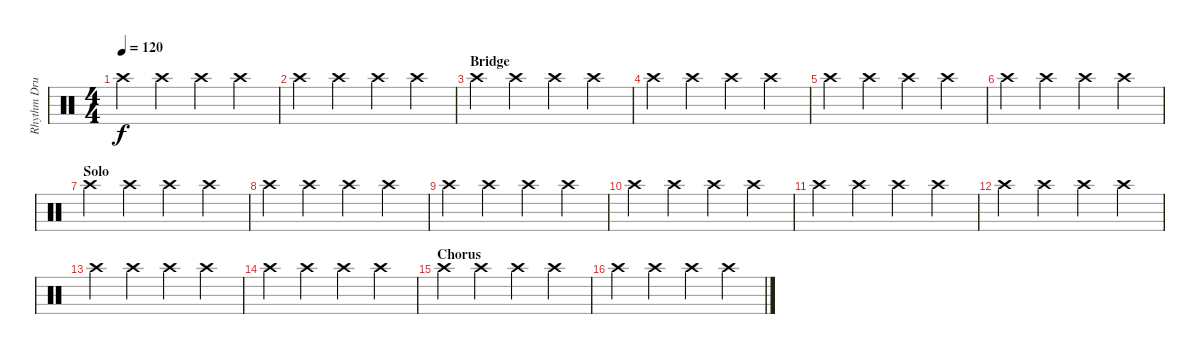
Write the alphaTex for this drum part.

\track ("Rhythm Drums (crash cymbal)" "Rhythm Dru") {instrument percussion}
\staff {score}
\articulation defaults
\ts (4 4)
\tempo 120
\clef neutral
\ks c "Crash high (hit)".4{dy f} "Crash high (hit)".4 "Crash high (hit)".4 "Crash high (hit)".4
|
"Crash high (hit)".4 "Crash high (hit)".4 "Crash high (hit)".4 "Crash high (hit)".4 |
\section ("" "Bridge")
"Crash high (hit)".4 "Crash high (hit)".4 "Crash high (hit)".4 "Crash high (hit)".4 |
"Crash high (hit)".4 "Crash high (hit)".4 "Crash high (hit)".4 "Crash high (hit)".4 |
"Crash high (hit)".4 "Crash high (hit)".4 "Crash high (hit)".4 "Crash high (hit)".4 |
"Crash high (hit)".4 "Crash high (hit)".4 "Crash high (hit)".4 "Crash high (hit)".4 |
\section ("" "Solo")
"Crash high (hit)".4 "Crash high (hit)".4 "Crash high (hit)".4 "Crash high (hit)".4 |
"Crash high (hit)".4 "Crash high (hit)".4 "Crash high (hit)".4 "Crash high (hit)".4 |
"Crash high (hit)".4 "Crash high (hit)".4 "Crash high (hit)".4 "Crash high (hit)".4 |
"Crash high (hit)".4 "Crash high (hit)".4 "Crash high (hit)".4 "Crash high (hit)".4 |
"Crash high (hit)".4 "Crash high (hit)".4 "Crash high (hit)".4 "Crash high (hit)".4 |
"Crash high (hit)".4 "Crash high (hit)".4 "Crash high (hit)".4 "Crash high (hit)".4 |
"Crash high (hit)".4 "Crash high (hit)".4 "Crash high (hit)".4 "Crash high (hit)".4 |
"Crash high (hit)".4 "Crash high (hit)".4 "Crash high (hit)".4 "Crash high (hit)".4 |
\section ("" "Chorus")
"Crash high (hit)".4 "Crash high (hit)".4 "Crash high (hit)".4 "Crash high (hit)".4 |
"Crash high (hit)".4 "Crash high (hit)".4 "Crash high (hit)".4 "Crash high (hit)".4
